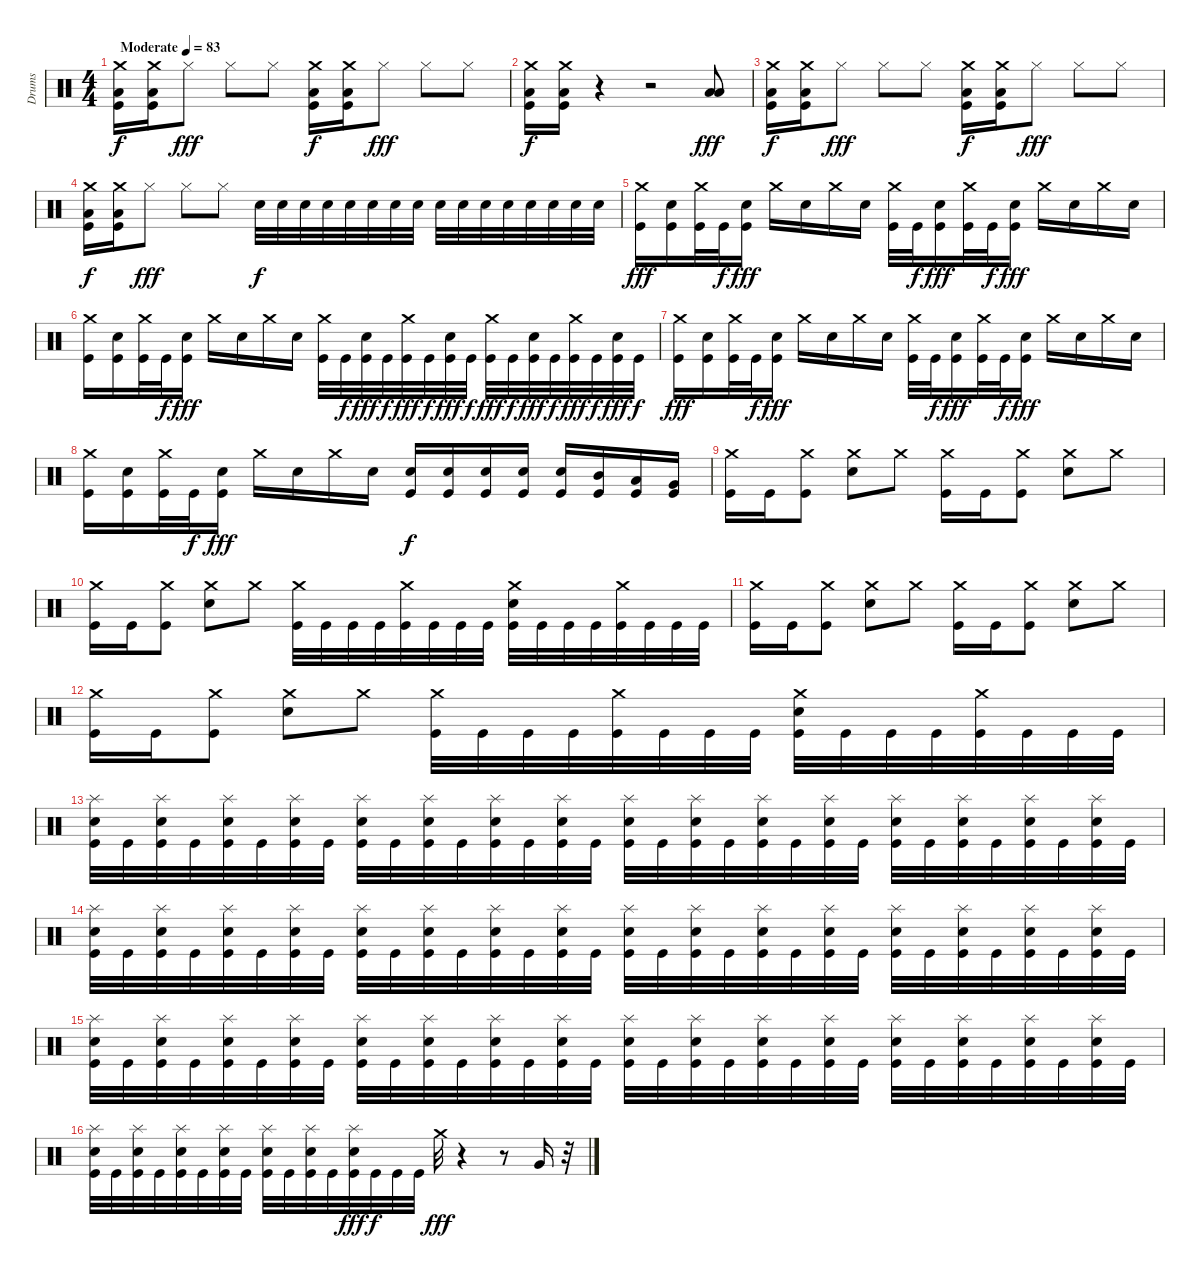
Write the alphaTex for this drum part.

\track ("Drums" "Drums") {instrument percussion}
\staff {score}
\articulation defaults
\ts (4 4)
\tempo (83 "Moderate")
\clef neutral
\ks c
("Crash medium (hit)" "Low Floor Tom (hit)" "Kick (hit)").16{dy f} ("Crash medium (hit)" "Low Floor Tom (hit)" "Kick (hit)").16 "Hi-Hat (closed)".8{dy fff} "Hi-Hat (closed)".8 "Hi-Hat (closed)".8 ("Crash medium (hit)" "Low Floor Tom (hit)" "Kick (hit)").16{dy f} ("Crash medium (hit)" "Low Floor Tom (hit)" "Kick (hit)").16 "Hi-Hat (closed)".8{dy fff} "Hi-Hat (closed)".8 "Hi-Hat (closed)".8 |
("Crash medium (hit)" "Low Floor Tom (hit)" "Kick (hit)").16{dy f} ("Crash medium (hit)" "Low Floor Tom (hit)" "Kick (hit)").16 r.4 r.2 ("Low Tom (hit)" "Low Tom (hit)").8{dy fff} |
("Crash medium (hit)" "Low Floor Tom (hit)" "Kick (hit)").16{dy f} ("Crash medium (hit)" "Low Floor Tom (hit)" "Kick (hit)").16 "Hi-Hat (closed)".8{dy fff} "Hi-Hat (closed)".8 "Hi-Hat (closed)".8 ("Crash medium (hit)" "Low Floor Tom (hit)" "Kick (hit)").16{dy f} ("Crash medium (hit)" "Low Floor Tom (hit)" "Kick (hit)").16 "Hi-Hat (closed)".8{dy fff} "Hi-Hat (closed)".8 "Hi-Hat (closed)".8 |
("Crash medium (hit)" "Low Floor Tom (hit)" "Kick (hit)").16{dy f} ("Crash medium (hit)" "Low Floor Tom (hit)" "Kick (hit)").16 "Hi-Hat (closed)".8{dy fff} "Hi-Hat (closed)".8 "Hi-Hat (closed)".8 "Snare (hit) 2".32{dy f} "Snare (hit) 2".32 "Snare (hit) 2".32 "Snare (hit) 2".32 "Snare (hit) 2".32 "Snare (hit) 2".32 "Snare (hit) 2".32 "Snare (hit) 2".32 "Snare (hit) 2".32 "Snare (hit) 2".32 "Snare (hit) 2".32 "Snare (hit) 2".32 "Snare (hit) 2".32 "Snare (hit) 2".32 "Snare (hit) 2".32 "Snare (hit) 2".32 |
("Crash medium (hit)" "Kick (hit)").16{dy fff} ("Snare (hit) 2" "Kick (hit)").16 ("Crash medium (hit)" "Kick (hit)").32 "Kick (hit)".32{dy f} ("Snare (hit) 2" "Kick (hit)").16{dy fff} "Crash medium (hit)".16 "Snare (hit) 2".16 "Crash medium (hit)".16 "Snare (hit) 2".16 ("Crash medium (hit)" "Kick (hit)").32 "Kick (hit)".32{dy f} ("Snare (hit) 2" "Kick (hit)").16{dy fff} ("Crash medium (hit)" "Kick (hit)").32 "Kick (hit)".32{dy f} ("Snare (hit) 2" "Kick (hit)").16{dy fff} "Crash medium (hit)".16 "Snare (hit) 2".16 "Crash medium (hit)".16 "Snare (hit) 2".16 |
("Crash medium (hit)" "Kick (hit)").16 ("Snare (hit) 2" "Kick (hit)").16 ("Crash medium (hit)" "Kick (hit)").32 "Kick (hit)".32{dy f} ("Snare (hit) 2" "Kick (hit)").16{dy fff} "Crash medium (hit)".16 "Snare (hit) 2".16 "Crash medium (hit)".16 "Snare (hit) 2".16 ("Crash medium (hit)" "Kick (hit)").32 "Kick (hit)".32{dy f} ("Snare (hit) 2" "Kick (hit)").32{dy fff} "Kick (hit)".32{dy f} ("Crash medium (hit)" "Kick (hit)").32{dy fff} "Kick (hit)".32{dy f} ("Snare (hit) 2" "Kick (hit)").32{dy fff} "Kick (hit)".32{dy f} ("Crash medium (hit)" "Kick (hit)").32{dy fff} "Kick (hit)".32{dy f} ("Snare (hit) 2" "Kick (hit)").32{dy fff} "Kick (hit)".32{dy f} ("Crash medium (hit)" "Kick (hit)").32{dy fff} "Kick (hit)".32{dy f} ("Snare (hit) 2" "Kick (hit)").32{dy fff} "Kick (hit)".32{dy f} |
("Crash medium (hit)" "Kick (hit)").16{dy fff} ("Snare (hit) 2" "Kick (hit)").16 ("Crash medium (hit)" "Kick (hit)").32 "Kick (hit)".32{dy f} ("Snare (hit) 2" "Kick (hit)").16{dy fff} "Crash medium (hit)".16 "Snare (hit) 2".16 "Crash medium (hit)".16 "Snare (hit) 2".16 ("Crash medium (hit)" "Kick (hit)").32 "Kick (hit)".32{dy f} ("Snare (hit) 2" "Kick (hit)").16{dy fff} ("Crash medium (hit)" "Kick (hit)").32 "Kick (hit)".32{dy f} ("Snare (hit) 2" "Kick (hit)").16{dy fff} "Crash medium (hit)".16 "Snare (hit) 2".16 "Crash medium (hit)".16 "Snare (hit) 2".16 |
("Crash medium (hit)" "Kick (hit)").16 ("Snare (hit) 2" "Kick (hit)").16 ("Crash medium (hit)" "Kick (hit)").32 "Kick (hit)".32{dy f} ("Snare (hit) 2" "Kick (hit)").16{dy fff} "Crash medium (hit)".16 "Snare (hit) 2".16 "Crash medium (hit)".16 "Snare (hit) 2".16 ("Snare (hit) 2" "Kick (hit)").16{dy f} ("Snare (hit) 2" "Kick (hit)").16 ("Snare (hit) 2" "Kick (hit)").16 ("Snare (hit) 2" "Kick (hit)").16 ("Snare (hit) 2" "Kick (hit)").16 ("Mid Tom (hit)" "Kick (hit)").16 ("Low Tom (hit)" "Kick (hit)").16 ("Very Low Tom (hit)" "Kick (hit)").16 |
("Crash medium (hit)" "Kick (hit)").16 "Kick (hit)".16 ("Crash medium (hit)" "Kick (hit)").8 ("Crash medium (hit)" "Snare (hit) 2").8 "Crash medium (hit)".8 ("Crash medium (hit)" "Kick (hit)").16 "Kick (hit)".16 ("Crash medium (hit)" "Kick (hit)").8 ("Crash medium (hit)" "Snare (hit) 2").8 "Crash medium (hit)".8 |
("Crash medium (hit)" "Kick (hit)").16 "Kick (hit)".16 ("Crash medium (hit)" "Kick (hit)").8 ("Crash medium (hit)" "Snare (hit) 2").8 "Crash medium (hit)".8 ("Crash medium (hit)" "Kick (hit)").32 "Kick (hit)".32 "Kick (hit)".32 "Kick (hit)".32 ("Crash medium (hit)" "Kick (hit)").32 "Kick (hit)".32 "Kick (hit)".32 "Kick (hit)".32 ("Crash medium (hit)" "Snare (hit) 2" "Kick (hit)").32 "Kick (hit)".32 "Kick (hit)".32 "Kick (hit)".32 ("Crash medium (hit)" "Kick (hit)").32 "Kick (hit)".32 "Kick (hit)".32 "Kick (hit)".32 |
("Crash medium (hit)" "Kick (hit)").16 "Kick (hit)".16 ("Crash medium (hit)" "Kick (hit)").8 ("Crash medium (hit)" "Snare (hit) 2").8 "Crash medium (hit)".8 ("Crash medium (hit)" "Kick (hit)").16 "Kick (hit)".16 ("Crash medium (hit)" "Kick (hit)").8 ("Crash medium (hit)" "Snare (hit) 2").8 "Crash medium (hit)".8 |
("Crash medium (hit)" "Kick (hit)").16 "Kick (hit)".16 ("Crash medium (hit)" "Kick (hit)").8 ("Crash medium (hit)" "Snare (hit) 2").8 "Crash medium (hit)".8 ("Crash medium (hit)" "Kick (hit)").32 "Kick (hit)".32 "Kick (hit)".32 "Kick (hit)".32 ("Crash medium (hit)" "Kick (hit)").32 "Kick (hit)".32 "Kick (hit)".32 "Kick (hit)".32 ("Crash medium (hit)" "Snare (hit) 2" "Kick (hit)").32 "Kick (hit)".32 "Kick (hit)".32 "Kick (hit)".32 ("Crash medium (hit)" "Kick (hit)").32 "Kick (hit)".32 "Kick (hit)".32 "Kick (hit)".32 |
("Splash (hit)" "Snare (hit) 2" "Kick (hit)").32 "Kick (hit)".32 ("Splash (hit)" "Snare (hit) 2" "Kick (hit)").32 "Kick (hit)".32 ("Splash (hit)" "Snare (hit) 2" "Kick (hit)").32 "Kick (hit)".32 ("Splash (hit)" "Snare (hit) 2" "Kick (hit)").32 "Kick (hit)".32 ("Splash (hit)" "Snare (hit) 2" "Kick (hit)").32 "Kick (hit)".32 ("Splash (hit)" "Snare (hit) 2" "Kick (hit)").32 "Kick (hit)".32 ("Splash (hit)" "Snare (hit) 2" "Kick (hit)").32 "Kick (hit)".32 ("Splash (hit)" "Snare (hit) 2" "Kick (hit)").32 "Kick (hit)".32 ("Splash (hit)" "Snare (hit) 2" "Kick (hit)").32 "Kick (hit)".32 ("Splash (hit)" "Snare (hit) 2" "Kick (hit)").32 "Kick (hit)".32 ("Splash (hit)" "Snare (hit) 2" "Kick (hit)").32 "Kick (hit)".32 ("Splash (hit)" "Snare (hit) 2" "Kick (hit)").32 "Kick (hit)".32 ("Splash (hit)" "Snare (hit) 2" "Kick (hit)").32 "Kick (hit)".32 ("Splash (hit)" "Snare (hit) 2" "Kick (hit)").32 "Kick (hit)".32 ("Splash (hit)" "Snare (hit) 2" "Kick (hit)").32 "Kick (hit)".32 ("Splash (hit)" "Snare (hit) 2" "Kick (hit)").32 "Kick (hit)".32 |
("Splash (hit)" "Snare (hit) 2" "Kick (hit)").32 "Kick (hit)".32 ("Splash (hit)" "Snare (hit) 2" "Kick (hit)").32 "Kick (hit)".32 ("Splash (hit)" "Snare (hit) 2" "Kick (hit)").32 "Kick (hit)".32 ("Splash (hit)" "Snare (hit) 2" "Kick (hit)").32 "Kick (hit)".32 ("Splash (hit)" "Snare (hit) 2" "Kick (hit)").32 "Kick (hit)".32 ("Splash (hit)" "Snare (hit) 2" "Kick (hit)").32 "Kick (hit)".32 ("Splash (hit)" "Snare (hit) 2" "Kick (hit)").32 "Kick (hit)".32 ("Splash (hit)" "Snare (hit) 2" "Kick (hit)").32 "Kick (hit)".32 ("Splash (hit)" "Snare (hit) 2" "Kick (hit)").32 "Kick (hit)".32 ("Splash (hit)" "Snare (hit) 2" "Kick (hit)").32 "Kick (hit)".32 ("Splash (hit)" "Snare (hit) 2" "Kick (hit)").32 "Kick (hit)".32 ("Splash (hit)" "Snare (hit) 2" "Kick (hit)").32 "Kick (hit)".32 ("Splash (hit)" "Snare (hit) 2" "Kick (hit)").32 "Kick (hit)".32 ("Splash (hit)" "Snare (hit) 2" "Kick (hit)").32 "Kick (hit)".32 ("Splash (hit)" "Snare (hit) 2" "Kick (hit)").32 "Kick (hit)".32 ("Splash (hit)" "Snare (hit) 2" "Kick (hit)").32 "Kick (hit)".32 |
("Splash (hit)" "Snare (hit) 2" "Kick (hit)").32 "Kick (hit)".32 ("Splash (hit)" "Snare (hit) 2" "Kick (hit)").32 "Kick (hit)".32 ("Splash (hit)" "Snare (hit) 2" "Kick (hit)").32 "Kick (hit)".32 ("Splash (hit)" "Snare (hit) 2" "Kick (hit)").32 "Kick (hit)".32 ("Splash (hit)" "Snare (hit) 2" "Kick (hit)").32 "Kick (hit)".32 ("Splash (hit)" "Snare (hit) 2" "Kick (hit)").32 "Kick (hit)".32 ("Splash (hit)" "Snare (hit) 2" "Kick (hit)").32 "Kick (hit)".32 ("Splash (hit)" "Snare (hit) 2" "Kick (hit)").32 "Kick (hit)".32 ("Splash (hit)" "Snare (hit) 2" "Kick (hit)").32 "Kick (hit)".32 ("Splash (hit)" "Snare (hit) 2" "Kick (hit)").32 "Kick (hit)".32 ("Splash (hit)" "Snare (hit) 2" "Kick (hit)").32 "Kick (hit)".32 ("Splash (hit)" "Snare (hit) 2" "Kick (hit)").32 "Kick (hit)".32 ("Splash (hit)" "Snare (hit) 2" "Kick (hit)").32 "Kick (hit)".32 ("Splash (hit)" "Snare (hit) 2" "Kick (hit)").32 "Kick (hit)".32 ("Splash (hit)" "Snare (hit) 2" "Kick (hit)").32 "Kick (hit)".32 ("Splash (hit)" "Snare (hit) 2" "Kick (hit)").32 "Kick (hit)".32 |
("Splash (hit)" "Snare (hit) 2" "Kick (hit)").32 "Kick (hit)".32 ("Splash (hit)" "Snare (hit) 2" "Kick (hit)").32 "Kick (hit)".32 ("Splash (hit)" "Snare (hit) 2" "Kick (hit)").32 "Kick (hit)".32 ("Splash (hit)" "Snare (hit) 2" "Kick (hit)").32 "Kick (hit)".32 ("Splash (hit)" "Snare (hit) 2" "Kick (hit)").32 "Kick (hit)".32 ("Splash (hit)" "Snare (hit) 2" "Kick (hit)").32 "Kick (hit)".32 ("Splash (hit)" "Snare (hit) 2" "Kick (hit)").32{dy fff} "Kick (hit)".32{dy f} "Kick (hit)".32 "Kick (hit)".32 "Crash medium (hit)".32{dy fff} r.4 r.8 "Very Low Tom (hit)".16 r.32
